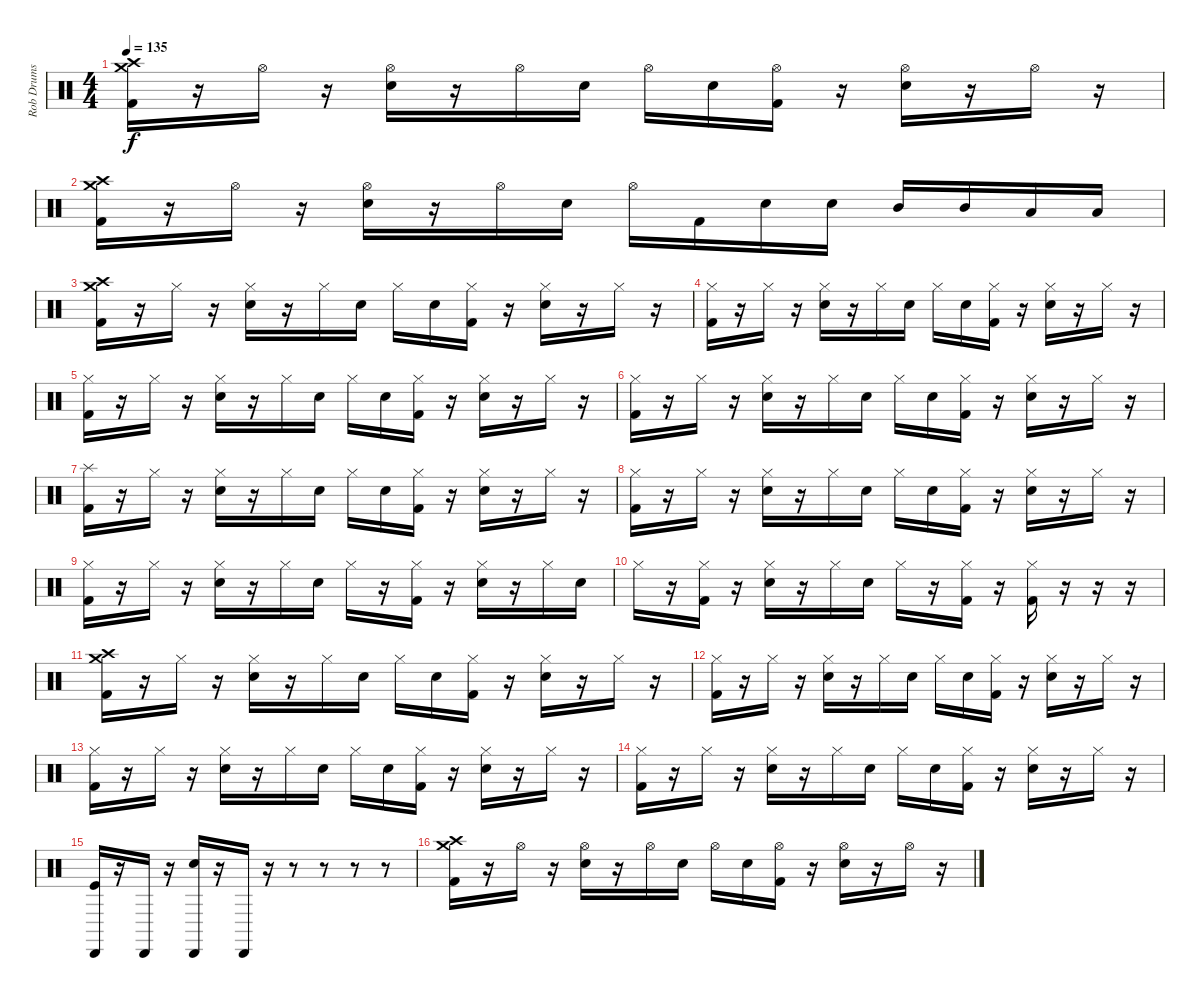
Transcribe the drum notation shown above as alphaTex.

\track ("Rob Drums" "Rob Drums") {instrument percussion}
\staff {score}
\articulation defaults
\ts (4 4)
\tempo 135
\clef neutral
\ks c
("Crash high (hit)" "Crash medium (hit)" "Kick (hit) 2").16{dy f} r.16 "Hi-Hat (open)".16 r.16 ("Hi-Hat (open)" "Electric Snare (hit)").16 r.16 "Hi-Hat (open)".16 "Electric Snare (hit)".16 "Hi-Hat (open)".16 "Electric Snare (hit)".16 ("Hi-Hat (open)" "Kick (hit) 2").16 r.16 ("Hi-Hat (open)" "Electric Snare (hit)").16 r.16 "Hi-Hat (open)".16 r.16 |
("Crash high (hit)" "Crash medium (hit)" "Kick (hit) 2").16 r.16 "Hi-Hat (open)".16 r.16 ("Hi-Hat (open)" "Electric Snare (hit)").16 r.16 "Hi-Hat (open)".16 "Electric Snare (hit)".16 "Hi-Hat (open)".16 "Kick (hit) 2".16 "Electric Snare (hit)".16 "Electric Snare (hit)".16 "Mid Tom (hit)".16 "Mid Tom (hit)".16 "Low Tom (hit)".16 "Low Tom (hit)".16 |
("Crash high (hit)" "Crash medium (hit)" "Kick (hit) 2").16 r.16 "Hi-Hat (closed)".16 r.16 ("Hi-Hat (closed)" "Electric Snare (hit)").16 r.16 "Hi-Hat (closed)".16 "Electric Snare (hit)".16 "Hi-Hat (closed)".16 "Electric Snare (hit)".16 ("Hi-Hat (closed)" "Kick (hit) 2").16 r.16 ("Hi-Hat (closed)" "Electric Snare (hit)").16 r.16 "Hi-Hat (closed)".16 r.16 |
("Hi-Hat (closed)" "Kick (hit) 2").16 r.16 "Hi-Hat (closed)".16 r.16 ("Hi-Hat (closed)" "Electric Snare (hit)").16 r.16 "Hi-Hat (closed)".16 "Electric Snare (hit)".16 "Hi-Hat (closed)".16 "Electric Snare (hit)".16 ("Hi-Hat (closed)" "Kick (hit) 2").16 r.16 ("Hi-Hat (closed)" "Electric Snare (hit)").16 r.16 "Hi-Hat (closed)".16 r.16 |
("Hi-Hat (closed)" "Kick (hit) 2").16 r.16 "Hi-Hat (closed)".16 r.16 ("Hi-Hat (closed)" "Electric Snare (hit)").16 r.16 "Hi-Hat (closed)".16 "Electric Snare (hit)".16 "Hi-Hat (closed)".16 "Electric Snare (hit)".16 ("Hi-Hat (closed)" "Kick (hit) 2").16 r.16 ("Hi-Hat (closed)" "Electric Snare (hit)").16 r.16 "Hi-Hat (closed)".16 r.16 |
("Hi-Hat (closed)" "Kick (hit) 2").16 r.16 "Hi-Hat (closed)".16 r.16 ("Hi-Hat (closed)" "Electric Snare (hit)").16 r.16 "Hi-Hat (closed)".16 "Electric Snare (hit)".16 "Hi-Hat (closed)".16 "Electric Snare (hit)".16 ("Hi-Hat (closed)" "Kick (hit) 2").16 r.16 ("Hi-Hat (closed)" "Electric Snare (hit)").16 r.16 "Hi-Hat (closed)".16 r.16 |
("Splash (hit)" "Kick (hit) 2").16 r.16 "Hi-Hat (closed)".16 r.16 ("Hi-Hat (closed)" "Electric Snare (hit)").16 r.16 "Hi-Hat (closed)".16 "Electric Snare (hit)".16 "Hi-Hat (closed)".16 "Electric Snare (hit)".16 ("Hi-Hat (closed)" "Kick (hit) 2").16 r.16 ("Hi-Hat (closed)" "Electric Snare (hit)").16 r.16 "Hi-Hat (closed)".16 r.16 |
("Hi-Hat (closed)" "Kick (hit) 2").16 r.16 "Hi-Hat (closed)".16 r.16 ("Hi-Hat (closed)" "Electric Snare (hit)").16 r.16 "Hi-Hat (closed)".16 "Electric Snare (hit)".16 "Hi-Hat (closed)".16 "Electric Snare (hit)".16 ("Hi-Hat (closed)" "Kick (hit) 2").16 r.16 ("Hi-Hat (closed)" "Electric Snare (hit)").16 r.16 "Hi-Hat (closed)".16 r.16 |
("Hi-Hat (closed)" "Kick (hit) 2").16 r.16 "Hi-Hat (closed)".16 r.16 ("Hi-Hat (closed)" "Electric Snare (hit)").16 r.16 "Hi-Hat (closed)".16 "Electric Snare (hit)".16 "Hi-Hat (closed)".16 r.16 ("Hi-Hat (closed)" "Kick (hit) 2").16 r.16 ("Hi-Hat (closed)" "Electric Snare (hit)").16 r.16 "Hi-Hat (closed)".16 "Electric Snare (hit)".16 |
"Hi-Hat (closed)".16 r.16 ("Hi-Hat (closed)" "Kick (hit) 2").16 r.16 ("Hi-Hat (closed)" "Electric Snare (hit)").16 r.16 "Hi-Hat (closed)".16 "Electric Snare (hit)".16 "Hi-Hat (closed)".16 r.16 ("Hi-Hat (closed)" "Kick (hit) 2").16 r.16 ("Hi-Hat (closed)" "Kick (hit) 2").16 r.16 r.16 r.16 |
("Crash high (hit)" "Crash medium (hit)" "Kick (hit) 2").16 r.16 "Hi-Hat (closed)".16 r.16 ("Hi-Hat (closed)" "Electric Snare (hit)").16 r.16 "Hi-Hat (closed)".16 "Electric Snare (hit)".16 "Hi-Hat (closed)".16 "Electric Snare (hit)".16 ("Hi-Hat (closed)" "Kick (hit) 2").16 r.16 ("Hi-Hat (closed)" "Electric Snare (hit)").16 r.16 "Hi-Hat (closed)".16 r.16 |
("Hi-Hat (closed)" "Kick (hit) 2").16 r.16 "Hi-Hat (closed)".16 r.16 ("Hi-Hat (closed)" "Electric Snare (hit)").16 r.16 "Hi-Hat (closed)".16 "Electric Snare (hit)".16 "Hi-Hat (closed)".16 "Electric Snare (hit)".16 ("Hi-Hat (closed)" "Kick (hit) 2").16 r.16 ("Hi-Hat (closed)" "Electric Snare (hit)").16 r.16 "Hi-Hat (closed)".16 r.16 |
("Hi-Hat (closed)" "Kick (hit) 2").16 r.16 "Hi-Hat (closed)".16 r.16 ("Hi-Hat (closed)" "Electric Snare (hit)").16 r.16 "Hi-Hat (closed)".16 "Electric Snare (hit)".16 "Hi-Hat (closed)".16 "Electric Snare (hit)".16 ("Hi-Hat (closed)" "Kick (hit) 2").16 r.16 ("Hi-Hat (closed)" "Electric Snare (hit)").16 r.16 "Hi-Hat (closed)".16 r.16 |
("Hi-Hat (closed)" "Kick (hit) 2").16 r.16 "Hi-Hat (closed)".16 r.16 ("Hi-Hat (closed)" "Electric Snare (hit)").16 r.16 "Hi-Hat (closed)".16 "Electric Snare (hit)".16 "Hi-Hat (closed)".16 "Electric Snare (hit)".16 ("Hi-Hat (closed)" "Kick (hit) 2").16 r.16 ("Hi-Hat (closed)" "Electric Snare (hit)").16 r.16 "Hi-Hat (closed)".16 r.16 |
("Cabasa (hit)" "Kick (hit)").16 r.16 "Cabasa (hit)".16 r.16 ("Cabasa (hit)" "Hand Clap (hit)").16 r.16 "Cabasa (hit)".16 r.16 r.8 r.8 r.8 r.8 |
("Crash high (hit)" "Crash medium (hit)" "Kick (hit) 2").16 r.16 "Hi-Hat (open)".16 r.16 ("Hi-Hat (open)" "Electric Snare (hit)").16 r.16 "Hi-Hat (open)".16 "Electric Snare (hit)".16 "Hi-Hat (open)".16 "Electric Snare (hit)".16 ("Hi-Hat (open)" "Kick (hit) 2").16 r.16 ("Hi-Hat (open)" "Electric Snare (hit)").16 r.16 "Hi-Hat (open)".16 r.16
